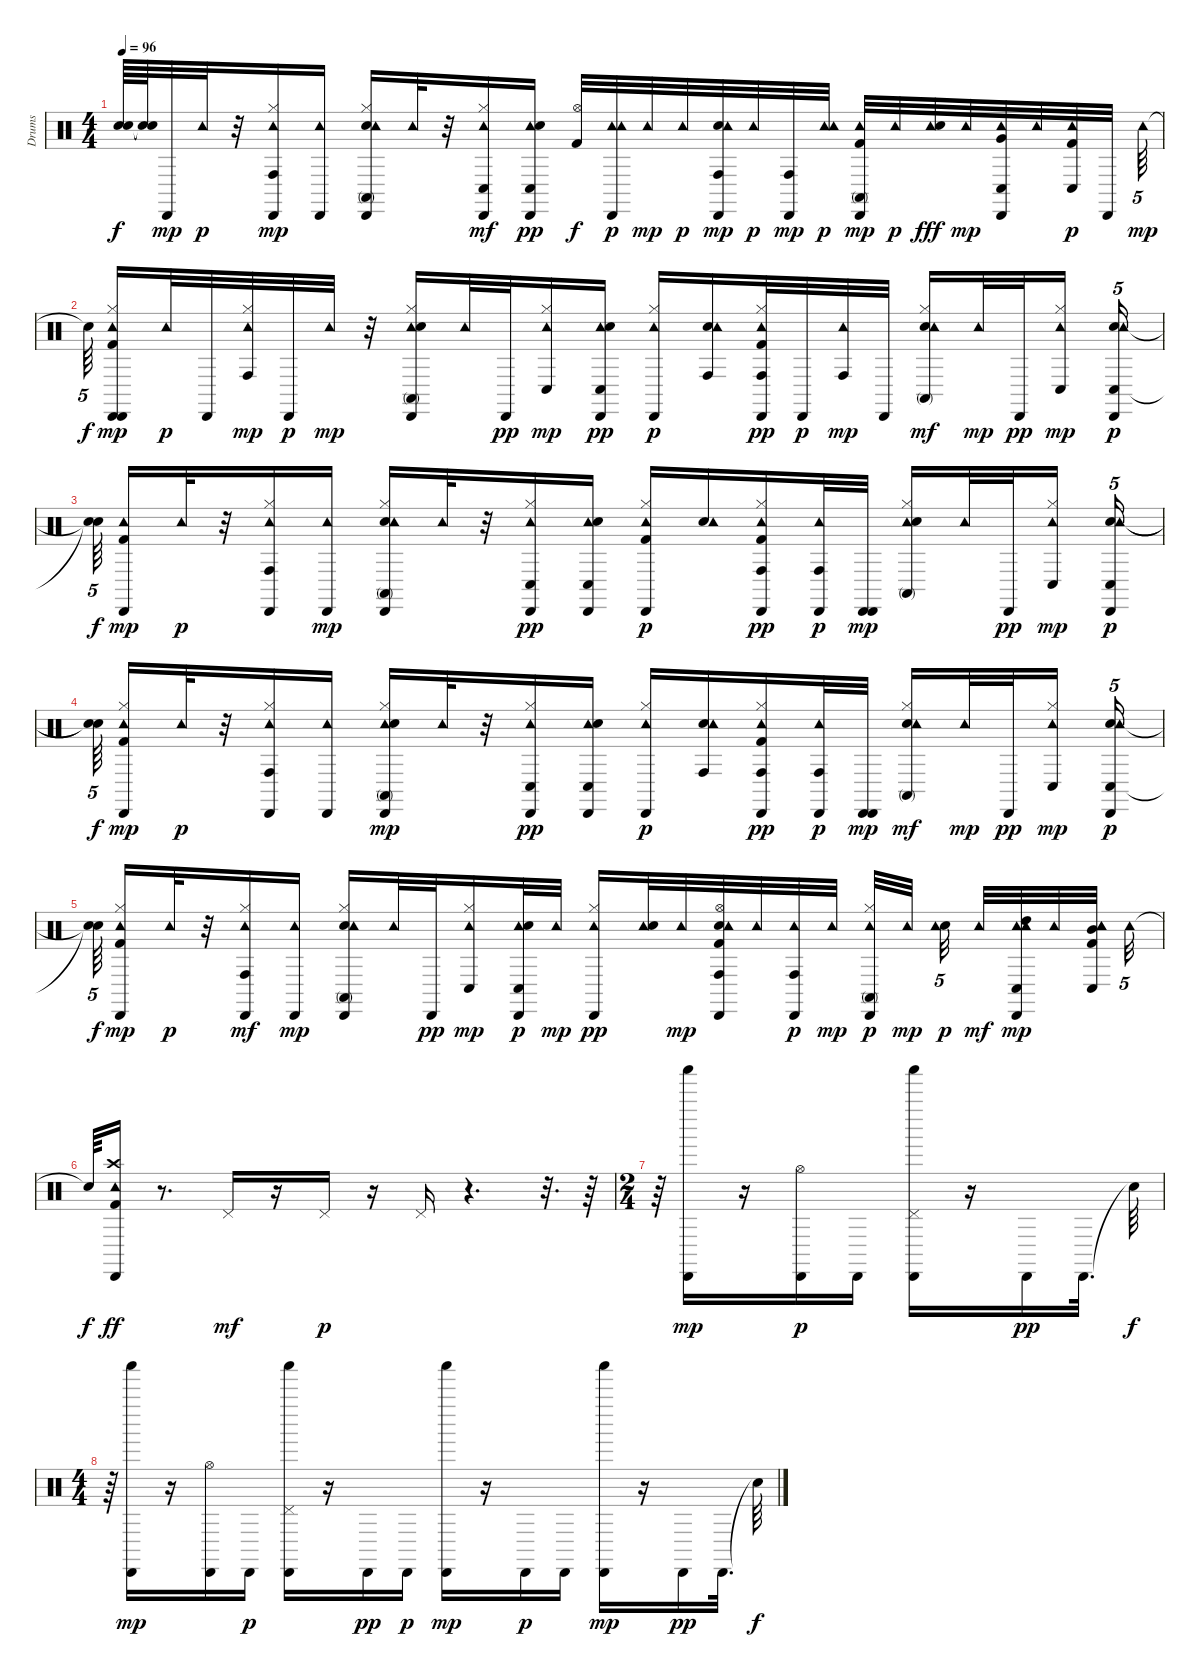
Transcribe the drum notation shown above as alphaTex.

\track ("Drums" "Drums") {instrument percussion}
\staff {score}
\articulation defaults
\ts (4 4)
\tempo 96
\clef neutral
\ks c
("Snare (hit)"{t} "Snare (hit)"{t}).64{dy f} ("Snare (hit)"{t} "Snare (hit)"{t}).64 "Cabasa (hit)".32{dy mp} "Tambourine (hit)".32{dy p} r.32 ("Cabasa (hit)" "Conga high (hit)" "Hi-Hat (closed)" "Tambourine (hit)").16{dy mp} ("Cabasa (hit)" "Tambourine (hit)").16 ("Hi-Hat (closed)" "Snare (hit) 2" "Conga high (mute)" "Tambourine (hit)" "Cabasa (hit)").16 "Tambourine (hit)".32 r.32 ("Cabasa (hit)" "Tambourine (hit)" "Conga low (hit)" "Hi-Hat (closed)").16{dy mf} ("Tambourine (hit)" "Conga low (hit)" "Snare (hit) 2" "Cabasa (hit)").16{dy pp} ("Kick (hit) 2" "Hi-Hat (open)").32{dy f} ("Tambourine (hit)" "Cabasa (hit)" "Tambourine (hit)").32{dy p} "Tambourine (hit)".32{dy mp} "Tambourine (hit)".32{dy p} ("Conga high (hit)" "Snare (hit) 2" "Cabasa (hit)" "Tambourine (hit)").32{dy mp} "Tambourine (hit)".32{dy p} ("Cabasa (hit)" "Conga high (hit)").32{dy mp} ("Tambourine (hit)" "Tambourine (hit)").32{dy p} ("Cabasa (hit)" "Tambourine (hit)" "Kick (hit) 2" "Conga high (mute)").32{dy mp} "Tambourine (hit)".32{dy p} ("Tambourine (hit)" "Snare (hit) 2").32{dy fff} "Tambourine (hit)".32{dy mp} ("Cabasa (hit)" "Very Low Tom (hit)" "Tambourine (hit)" "Conga low (hit)").32 "Tambourine (hit)".32 ("Tambourine (hit)" "Kick (hit) 2" "Conga low (hit)").32{dy p} "Cabasa (hit)".32 "Tambourine (hit)".64{tu (5 4) dy mp} |
"Snare (hit)"{t}.64{tu (5 4) dy f beam splitsecondary} ("Cabasa (hit)" "Hi-Hat (closed)" "Kick (hit) 2" "Tambourine (hit)" "Cabasa (hit)").16{dy mp} "Tambourine (hit)".32{dy p} "Cabasa (hit)".32 ("Hi-Hat (closed)" "Conga high (hit)" "Tambourine (hit)").32{dy mp} "Cabasa (hit)".32{dy p} "Tambourine (hit)".32{dy mp} r.32 ("Tambourine (hit)" "Hi-Hat (closed)" "Snare (hit) 2" "Conga high (mute)" "Cabasa (hit)").16 "Tambourine (hit)".32 "Cabasa (hit)".32{dy pp} ("Conga low (hit)" "Hi-Hat (closed)" "Tambourine (hit)").16{dy mp} ("Tambourine (hit)" "Conga low (hit)" "Electric Snare (hit)" "Cabasa (hit)").16{dy pp} ("Hi-Hat (closed)" "Tambourine (hit)" "Cabasa (hit)").16{dy p} ("Conga high (hit)" "Electric Snare (hit)" "Tambourine (hit)").16 ("Tambourine (hit)" "Kick (hit) 2" "Conga high (hit)" "Hi-Hat (closed)" "Cabasa (hit)").32{dy pp} "Cabasa (hit)".32{dy p} ("Conga high (hit)" "Tambourine (hit)").32{dy mp} "Cabasa (hit)".32 ("Conga high (mute)" "Snare (hit) 2" "Hi-Hat (closed)" "Tambourine (hit)").16{dy mf} "Tambourine (hit)".32{dy mp} "Cabasa (hit)".32{dy pp} ("Conga low (hit)" "Hi-Hat (closed)" "Tambourine (hit)").16{dy mp beam splitsecondary} ("Electric Snare (hit)" "Conga low (hit)" "Tambourine (hit)" "Cabasa (hit)").16{tu (5 4) dy p} |
("Snare (hit)"{t} "Snare (hit)"{t}).64{tu (5 4) dy f beam splitsecondary} ("Cabasa (hit)" "Kick (hit) 2" "Tambourine (hit)").16{dy mp} "Tambourine (hit)".32{dy p} r.32 ("Conga high (hit)" "Hi-Hat (closed)" "Tambourine (hit)" "Cabasa (hit)").16 ("Cabasa (hit)" "Tambourine (hit)").16{dy mp} ("Hi-Hat (closed)" "Snare (hit) 2" "Conga high (mute)" "Tambourine (hit)" "Cabasa (hit)").16 "Tambourine (hit)".32 r.32 ("Tambourine (hit)" "Conga low (hit)" "Hi-Hat (closed)" "Cabasa (hit)").16{dy pp} ("Tambourine (hit)" "Conga low (hit)" "Cabasa (hit)" "Electric Snare (hit)").16 ("Kick (hit) 2" "Tambourine (hit)" "Hi-Hat (closed)" "Cabasa (hit)").16{dy p} ("Electric Snare (hit)" "Tambourine (hit)").16 ("Conga high (hit)" "Kick (hit) 2" "Hi-Hat (closed)" "Tambourine (hit)" "Cabasa (hit)").16{dy pp} ("Tambourine (hit)" "Conga high (hit)" "Cabasa (hit)").32{dy p} ("Cabasa (hit)" "Cabasa (hit)").32{dy mp} ("Tambourine (hit)" "Hi-Hat (closed)" "Snare (hit) 2" "Conga high (mute)").16 "Tambourine (hit)".32 "Cabasa (hit)".32{dy pp} ("Hi-Hat (closed)" "Tambourine (hit)" "Conga low (hit)").16{dy mp beam splitsecondary} ("Electric Snare (hit)" "Tambourine (hit)" "Cabasa (hit)" "Conga low (hit)").16{tu (5 4) dy p} |
("Snare (hit)"{t} "Snare (hit)"{t}).64{tu (5 4) dy f beam splitsecondary} ("Hi-Hat (closed)" "Kick (hit) 2" "Cabasa (hit)" "Tambourine (hit)").16{dy mp} "Tambourine (hit)".32{dy p} r.32 ("Hi-Hat (closed)" "Conga high (hit)" "Tambourine (hit)" "Cabasa (hit)").16 ("Tambourine (hit)" "Cabasa (hit)").16 ("Tambourine (hit)" "Hi-Hat (closed)" "Snare (hit) 2" "Conga high (mute)" "Cabasa (hit)").16{dy mp} "Tambourine (hit)".32 r.32 ("Conga low (hit)" "Hi-Hat (closed)" "Tambourine (hit)" "Cabasa (hit)").16{dy pp} ("Tambourine (hit)" "Conga low (hit)" "Electric Snare (hit)" "Cabasa (hit)").16 ("Hi-Hat (closed)" "Tambourine (hit)" "Cabasa (hit)").16{dy p} ("Conga high (hit)" "Electric Snare (hit)" "Tambourine (hit)").16 ("Tambourine (hit)" "Kick (hit) 2" "Conga high (hit)" "Hi-Hat (closed)" "Cabasa (hit)").16{dy pp} ("Conga high (hit)" "Tambourine (hit)" "Cabasa (hit)").32{dy p} ("Cabasa (hit)" "Cabasa (hit)").32{dy mp} ("Conga high (mute)" "Snare (hit) 2" "Hi-Hat (closed)" "Tambourine (hit)").16{dy mf} "Tambourine (hit)".32{dy mp} "Cabasa (hit)".32{dy pp} ("Conga low (hit)" "Hi-Hat (closed)" "Tambourine (hit)").16{dy mp beam splitsecondary} ("Electric Snare (hit)" "Conga low (hit)" "Tambourine (hit)" "Cabasa (hit)").16{tu (5 4) dy p} |
("Snare (hit)"{t} "Snare (hit)"{t}).64{tu (5 4) dy f beam splitsecondary} ("Kick (hit) 2" "Hi-Hat (closed)" "Tambourine (hit)" "Cabasa (hit)").16{dy mp} "Tambourine (hit)".32{dy p} r.32 ("Cabasa (hit)" "Tambourine (hit)" "Conga high (hit)" "Hi-Hat (closed)").16{dy mf} ("Cabasa (hit)" "Tambourine (hit)").16{dy mp} ("Snare (hit) 2" "Conga high (mute)" "Hi-Hat (closed)" "Tambourine (hit)" "Cabasa (hit)").16 "Tambourine (hit)".32 "Cabasa (hit)".32{dy pp} ("Hi-Hat (closed)" "Tambourine (hit)" "Conga low (hit)").16{dy mp} ("Cabasa (hit)" "Tambourine (hit)" "Conga low (hit)" "Snare (hit) 2").32{dy p} "Tambourine (hit)".32{dy mp} ("Cabasa (hit)" "Hi-Hat (closed)" "Tambourine (hit)").16{dy pp} ("Tambourine (hit)" "Electric Snare (hit)").32 "Tambourine (hit)".32{dy mp} ("Kick (hit) 2" "Electric Snare (hit)" "Hi-Hat (open)" "Cabasa (hit)" "Conga high (hit)" "Tambourine (hit)").32 "Tambourine (hit)".32 ("Tambourine (hit)" "Conga high (hit)" "Cabasa (hit)").32{dy p} "Tambourine (hit)".32{dy mp} ("Cabasa (hit)" "Conga high (mute)" "Hi-Hat (closed)" "Tambourine (hit)").32{dy p} "Tambourine (hit)".32{dy mp beam splitsecondary} ("Snare (hit) 2" "Tambourine (hit)").32{tu (5 4) dy p beam splitsecondary} "Tambourine (hit)".32{dy mf} ("Tambourine (hit)" "Conga low (hit)" "High Tom (hit)" "Cabasa (hit)" "Tambourine (hit)").32{dy mp} "Tambourine (hit)".32 ("Conga low (hit)" "Kick (hit) 2" "Mid Tom (hit)" "Tambourine (hit)" "Tambourine (hit)").32{beam splitsecondary} "Tambourine (hit)".32{tu (5 4)} |
"Snare (hit)"{t}.64{dy f} ("Cabasa (hit)" "Crash high (hit)" "Tambourine (hit)" "Kick (hit) 2").16{dy ff} r.8{d} "Pedal Hi-Hat (hit)".16{dy mf} r.16 "Pedal Hi-Hat (hit)".16{dy p} r.16 "Pedal Hi-Hat (hit)".16 r.4{d} r.32{d} r.64 |
\ts (2 4)
r.64 ("Cabasa (hit)" "Shaker (hit)").16{dy mp} r.16 ("Hi-Hat (open)" "Cabasa (hit)").16{dy p} "Cabasa (hit)".16 ("Pedal Hi-Hat (hit)" "Cabasa (hit)" "Shaker (hit)").16 r.16 "Cabasa (hit)".16{dy pp} "Cabasa (hit)".32{d} "Snare (hit)"{t}.64{dy f} |
\ts (4 4)
r.64 ("Cabasa (hit)" "Shaker (hit)").16{dy mp} r.16 ("Cabasa (hit)" "Hi-Hat (open)").16 "Cabasa (hit)".16{dy p} ("Cabasa (hit)" "Pedal Hi-Hat (hit)" "Shaker (hit)").16 r.16 "Cabasa (hit)".16{dy pp} "Cabasa (hit)".16{dy p} ("Shaker (hit)" "Cabasa (hit)").16{dy mp} r.16 "Cabasa (hit)".16{dy p} "Cabasa (hit)".16 ("Shaker (hit)" "Cabasa (hit)").16{dy mp} r.16 "Cabasa (hit)".16{dy pp} "Cabasa (hit)".32{d} "Snare (hit)"{t}.64{dy f}
